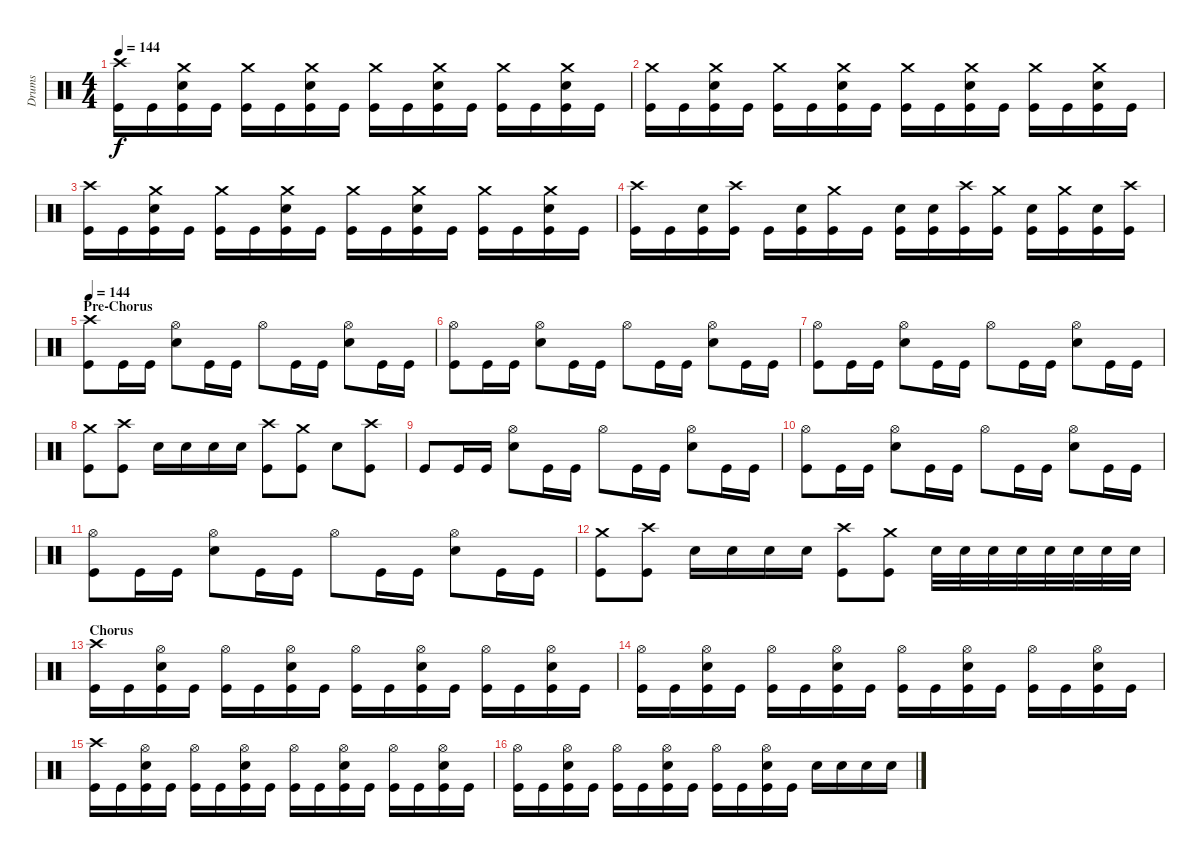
\track ("Drums" "Drums") {instrument percussion}
\staff {score}
\articulation defaults
\ts (4 4)
\tempo 144
\clef neutral
\ks c
("Crash high (hit)" "Kick (hit)").16{dy f} "Kick (hit)".16 ("Crash medium (hit)" "Electric Snare (hit)" "Kick (hit)").16 "Kick (hit)".16 ("Crash medium (hit)" "Kick (hit)").16 "Kick (hit)".16 ("Crash medium (hit)" "Electric Snare (hit)" "Kick (hit)").16 "Kick (hit)".16 ("Crash medium (hit)" "Kick (hit)").16 "Kick (hit)".16 ("Crash medium (hit)" "Electric Snare (hit)" "Kick (hit)").16 "Kick (hit)".16 ("Crash medium (hit)" "Kick (hit)").16 "Kick (hit)".16 ("Crash medium (hit)" "Electric Snare (hit)" "Kick (hit)").16 "Kick (hit)".16 |
("Crash medium (hit)" "Kick (hit)").16 "Kick (hit)".16 ("Crash medium (hit)" "Electric Snare (hit)" "Kick (hit)").16 "Kick (hit)".16 ("Crash medium (hit)" "Kick (hit)").16 "Kick (hit)".16 ("Crash medium (hit)" "Electric Snare (hit)" "Kick (hit)").16 "Kick (hit)".16 ("Crash medium (hit)" "Kick (hit)").16 "Kick (hit)".16 ("Crash medium (hit)" "Electric Snare (hit)" "Kick (hit)").16 "Kick (hit)".16 ("Crash medium (hit)" "Kick (hit)").16 "Kick (hit)".16 ("Crash medium (hit)" "Electric Snare (hit)" "Kick (hit)").16 "Kick (hit)".16 |
("Crash high (hit)" "Kick (hit)").16 "Kick (hit)".16 ("Crash medium (hit)" "Electric Snare (hit)" "Kick (hit)").16 "Kick (hit)".16 ("Crash medium (hit)" "Kick (hit)").16 "Kick (hit)".16 ("Crash medium (hit)" "Electric Snare (hit)" "Kick (hit)").16 "Kick (hit)".16 ("Crash medium (hit)" "Kick (hit)").16 "Kick (hit)".16 ("Crash medium (hit)" "Electric Snare (hit)" "Kick (hit)").16 "Kick (hit)".16 ("Crash medium (hit)" "Kick (hit)").16 "Kick (hit)".16 ("Crash medium (hit)" "Electric Snare (hit)" "Kick (hit)").16 "Kick (hit)".16 |
("Crash high (hit)" "Kick (hit)").16 "Kick (hit)".16 ("Electric Snare (hit)" "Kick (hit)").16 ("Crash high (hit)" "Kick (hit)").16 "Kick (hit)".16 ("Electric Snare (hit)" "Kick (hit)").16 ("Crash medium (hit)" "Kick (hit)").16 "Kick (hit)".16 ("Electric Snare (hit)" "Kick (hit)").16 ("Electric Snare (hit)" "Kick (hit)").16 ("Crash high (hit)" "Kick (hit)").16 ("Crash medium (hit)" "Kick (hit)").16 ("Electric Snare (hit)" "Kick (hit)").16 ("Crash medium (hit)" "Kick (hit)").16 ("Electric Snare (hit)" "Kick (hit)").16 ("Crash high (hit)" "Kick (hit)").16 |
\section ("" "Pre-Chorus")
\tempo 144
("Crash high (hit)" "Kick (hit)").8 "Kick (hit)".16 "Kick (hit)".16 ("Hi-Hat (open)" "Electric Snare (hit)").8 "Kick (hit)".16 "Kick (hit)".16 "Hi-Hat (open)".8 "Kick (hit)".16 "Kick (hit)".16 ("Hi-Hat (open)" "Electric Snare (hit)").8 "Kick (hit)".16 "Kick (hit)".16 |
("Hi-Hat (open)" "Kick (hit)").8 "Kick (hit)".16 "Kick (hit)".16 ("Hi-Hat (open)" "Electric Snare (hit)").8 "Kick (hit)".16 "Kick (hit)".16 "Hi-Hat (open)".8 "Kick (hit)".16 "Kick (hit)".16 ("Hi-Hat (open)" "Electric Snare (hit)").8 "Kick (hit)".16 "Kick (hit)".16 |
("Hi-Hat (open)" "Kick (hit)").8 "Kick (hit)".16 "Kick (hit)".16 ("Hi-Hat (open)" "Electric Snare (hit)").8 "Kick (hit)".16 "Kick (hit)".16 "Hi-Hat (open)".8 "Kick (hit)".16 "Kick (hit)".16 ("Hi-Hat (open)" "Electric Snare (hit)").8 "Kick (hit)".16 "Kick (hit)".16 |
("Crash medium (hit)" "Kick (hit)").8 ("Crash high (hit)" "Kick (hit)").8 "Electric Snare (hit)".16 "Electric Snare (hit)".16 "Electric Snare (hit)".16 "Electric Snare (hit)".16 ("Crash high (hit)" "Kick (hit)").8 ("Crash medium (hit)" "Kick (hit)").8 "Electric Snare (hit)".8 ("Crash high (hit)" "Kick (hit)").8 |
"Kick (hit)".8 "Kick (hit)".16 "Kick (hit)".16 ("Hi-Hat (open)" "Electric Snare (hit)").8 "Kick (hit)".16 "Kick (hit)".16 "Hi-Hat (open)".8 "Kick (hit)".16 "Kick (hit)".16 ("Hi-Hat (open)" "Electric Snare (hit)").8 "Kick (hit)".16 "Kick (hit)".16 |
("Hi-Hat (open)" "Kick (hit)").8 "Kick (hit)".16 "Kick (hit)".16 ("Hi-Hat (open)" "Electric Snare (hit)").8 "Kick (hit)".16 "Kick (hit)".16 "Hi-Hat (open)".8 "Kick (hit)".16 "Kick (hit)".16 ("Hi-Hat (open)" "Electric Snare (hit)").8 "Kick (hit)".16 "Kick (hit)".16 |
("Hi-Hat (open)" "Kick (hit)").8 "Kick (hit)".16 "Kick (hit)".16 ("Hi-Hat (open)" "Electric Snare (hit)").8 "Kick (hit)".16 "Kick (hit)".16 "Hi-Hat (open)".8 "Kick (hit)".16 "Kick (hit)".16 ("Hi-Hat (open)" "Electric Snare (hit)").8 "Kick (hit)".16 "Kick (hit)".16 |
("Crash medium (hit)" "Kick (hit)").8 ("Crash high (hit)" "Kick (hit)").8 "Electric Snare (hit)".16 "Electric Snare (hit)".16 "Electric Snare (hit)".16 "Electric Snare (hit)".16 ("Crash high (hit)" "Kick (hit)").8 ("Crash medium (hit)" "Kick (hit)").8 "Electric Snare (hit)".32 "Electric Snare (hit)".32 "Electric Snare (hit)".32 "Electric Snare (hit)".32 "Electric Snare (hit)".32 "Electric Snare (hit)".32 "Electric Snare (hit)".32 "Electric Snare (hit)".32 |
\section ("" "Chorus")
("Crash high (hit)" "Kick (hit)").16 "Kick (hit)".16 ("Hi-Hat (open)" "Electric Snare (hit)" "Kick (hit)").16 "Kick (hit)".16 ("Hi-Hat (open)" "Kick (hit)").16 "Kick (hit)".16 ("Hi-Hat (open)" "Electric Snare (hit)" "Kick (hit)").16 "Kick (hit)".16 ("Hi-Hat (open)" "Kick (hit)").16 "Kick (hit)".16 ("Hi-Hat (open)" "Electric Snare (hit)" "Kick (hit)").16 "Kick (hit)".16 ("Hi-Hat (open)" "Kick (hit)").16 "Kick (hit)".16 ("Hi-Hat (open)" "Electric Snare (hit)" "Kick (hit)").16 "Kick (hit)".16 |
("Hi-Hat (open)" "Kick (hit)").16 "Kick (hit)".16 ("Hi-Hat (open)" "Electric Snare (hit)" "Kick (hit)").16 "Kick (hit)".16 ("Hi-Hat (open)" "Kick (hit)").16 "Kick (hit)".16 ("Hi-Hat (open)" "Electric Snare (hit)" "Kick (hit)").16 "Kick (hit)".16 ("Hi-Hat (open)" "Kick (hit)").16 "Kick (hit)".16 ("Hi-Hat (open)" "Electric Snare (hit)" "Kick (hit)").16 "Kick (hit)".16 ("Hi-Hat (open)" "Kick (hit)").16 "Kick (hit)".16 ("Hi-Hat (open)" "Electric Snare (hit)" "Kick (hit)").16 "Kick (hit)".16 |
("Crash high (hit)" "Kick (hit)").16 "Kick (hit)".16 ("Hi-Hat (open)" "Electric Snare (hit)" "Kick (hit)").16 "Kick (hit)".16 ("Hi-Hat (open)" "Kick (hit)").16 "Kick (hit)".16 ("Hi-Hat (open)" "Electric Snare (hit)" "Kick (hit)").16 "Kick (hit)".16 ("Hi-Hat (open)" "Kick (hit)").16 "Kick (hit)".16 ("Hi-Hat (open)" "Electric Snare (hit)" "Kick (hit)").16 "Kick (hit)".16 ("Hi-Hat (open)" "Kick (hit)").16 "Kick (hit)".16 ("Hi-Hat (open)" "Electric Snare (hit)" "Kick (hit)").16 "Kick (hit)".16 |
("Hi-Hat (open)" "Kick (hit)").16 "Kick (hit)".16 ("Hi-Hat (open)" "Electric Snare (hit)" "Kick (hit)").16 "Kick (hit)".16 ("Hi-Hat (open)" "Kick (hit)").16 "Kick (hit)".16 ("Hi-Hat (open)" "Electric Snare (hit)" "Kick (hit)").16 "Kick (hit)".16 ("Hi-Hat (open)" "Kick (hit)").16 "Kick (hit)".16 ("Hi-Hat (open)" "Electric Snare (hit)" "Kick (hit)").16 "Kick (hit)".16 "Electric Snare (hit)".16 "Electric Snare (hit)".16 "Electric Snare (hit)".16 "Electric Snare (hit)".16
